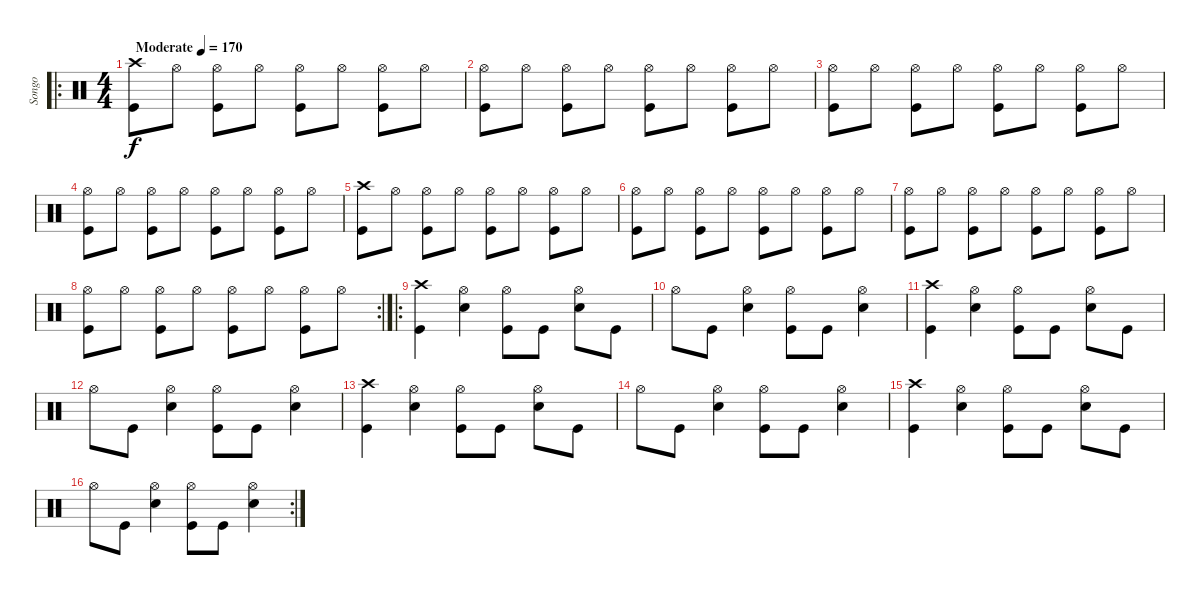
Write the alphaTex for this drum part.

\track ("Songo" "Songo") {instrument percussion}
\staff {score}
\articulation defaults
\ro
\ts (4 4)
\tempo (170 "Moderate")
\clef neutral
\ks c
("Crash high (hit)" "Kick (hit)").8{dy f} "Hi-Hat (open)".8 ("Hi-Hat (open)" "Kick (hit)").8 "Hi-Hat (open)".8 ("Hi-Hat (open)" "Kick (hit)").8 "Hi-Hat (open)".8 ("Hi-Hat (open)" "Kick (hit)").8 "Hi-Hat (open)".8 |
("Hi-Hat (open)" "Kick (hit)").8 "Hi-Hat (open)".8 ("Hi-Hat (open)" "Kick (hit)").8 "Hi-Hat (open)".8 ("Hi-Hat (open)" "Kick (hit)").8 "Hi-Hat (open)".8 ("Hi-Hat (open)" "Kick (hit)").8 "Hi-Hat (open)".8 |
("Hi-Hat (open)" "Kick (hit)").8 "Hi-Hat (open)".8 ("Hi-Hat (open)" "Kick (hit)").8 "Hi-Hat (open)".8 ("Hi-Hat (open)" "Kick (hit)").8 "Hi-Hat (open)".8 ("Hi-Hat (open)" "Kick (hit)").8 "Hi-Hat (open)".8 |
("Hi-Hat (open)" "Kick (hit)").8 "Hi-Hat (open)".8 ("Hi-Hat (open)" "Kick (hit)").8 "Hi-Hat (open)".8 ("Hi-Hat (open)" "Kick (hit)").8 "Hi-Hat (open)".8 ("Hi-Hat (open)" "Kick (hit)").8 "Hi-Hat (open)".8 |
("Crash high (hit)" "Kick (hit)").8 "Hi-Hat (open)".8 ("Hi-Hat (open)" "Kick (hit)").8 "Hi-Hat (open)".8 ("Hi-Hat (open)" "Kick (hit)").8 "Hi-Hat (open)".8 ("Hi-Hat (open)" "Kick (hit)").8 "Hi-Hat (open)".8 |
("Hi-Hat (open)" "Kick (hit)").8 "Hi-Hat (open)".8 ("Hi-Hat (open)" "Kick (hit)").8 "Hi-Hat (open)".8 ("Hi-Hat (open)" "Kick (hit)").8 "Hi-Hat (open)".8 ("Hi-Hat (open)" "Kick (hit)").8 "Hi-Hat (open)".8 |
("Hi-Hat (open)" "Kick (hit)").8 "Hi-Hat (open)".8 ("Hi-Hat (open)" "Kick (hit)").8 "Hi-Hat (open)".8 ("Hi-Hat (open)" "Kick (hit)").8 "Hi-Hat (open)".8 ("Hi-Hat (open)" "Kick (hit)").8 "Hi-Hat (open)".8 |
\rc 2
("Hi-Hat (open)" "Kick (hit)").8 "Hi-Hat (open)".8 ("Hi-Hat (open)" "Kick (hit)").8 "Hi-Hat (open)".8 ("Hi-Hat (open)" "Kick (hit)").8 "Hi-Hat (open)".8 ("Hi-Hat (open)" "Kick (hit)").8 "Hi-Hat (open)".8 |
\ro
("Kick (hit)" "Crash high (hit)").4 ("Hi-Hat (open)" "Snare (hit) 2").4 ("Hi-Hat (open)" "Kick (hit)").8 "Kick (hit)".8 ("Hi-Hat (open)" "Snare (hit) 2").8 "Kick (hit)".8 |
"Hi-Hat (open)".8 "Kick (hit)".8 ("Hi-Hat (open)" "Snare (hit) 2").4 ("Hi-Hat (open)" "Kick (hit)").8 "Kick (hit)".8 ("Hi-Hat (open)" "Snare (hit) 2").4 |
("Kick (hit)" "Crash high (hit)").4 ("Hi-Hat (open)" "Snare (hit) 2").4 ("Hi-Hat (open)" "Kick (hit)").8 "Kick (hit)".8 ("Hi-Hat (open)" "Snare (hit) 2").8 "Kick (hit)".8 |
"Hi-Hat (open)".8 "Kick (hit)".8 ("Hi-Hat (open)" "Snare (hit) 2").4 ("Hi-Hat (open)" "Kick (hit)").8 "Kick (hit)".8 ("Hi-Hat (open)" "Snare (hit) 2").4 |
("Kick (hit)" "Crash high (hit)").4 ("Hi-Hat (open)" "Snare (hit) 2").4 ("Hi-Hat (open)" "Kick (hit)").8 "Kick (hit)".8 ("Hi-Hat (open)" "Snare (hit) 2").8 "Kick (hit)".8 |
"Hi-Hat (open)".8 "Kick (hit)".8 ("Hi-Hat (open)" "Snare (hit) 2").4 ("Hi-Hat (open)" "Kick (hit)").8 "Kick (hit)".8 ("Hi-Hat (open)" "Snare (hit) 2").4 |
("Kick (hit)" "Crash high (hit)").4 ("Hi-Hat (open)" "Snare (hit) 2").4 ("Hi-Hat (open)" "Kick (hit)").8 "Kick (hit)".8 ("Hi-Hat (open)" "Snare (hit) 2").8 "Kick (hit)".8 |
\rc 2 "Hi-Hat (open)".8 "Kick (hit)".8
("Hi-Hat (open)" "Snare (hit) 2").4 ("Hi-Hat (open)" "Kick (hit)").8 "Kick (hit)".8 ("Hi-Hat (open)" "Snare (hit) 2").4
